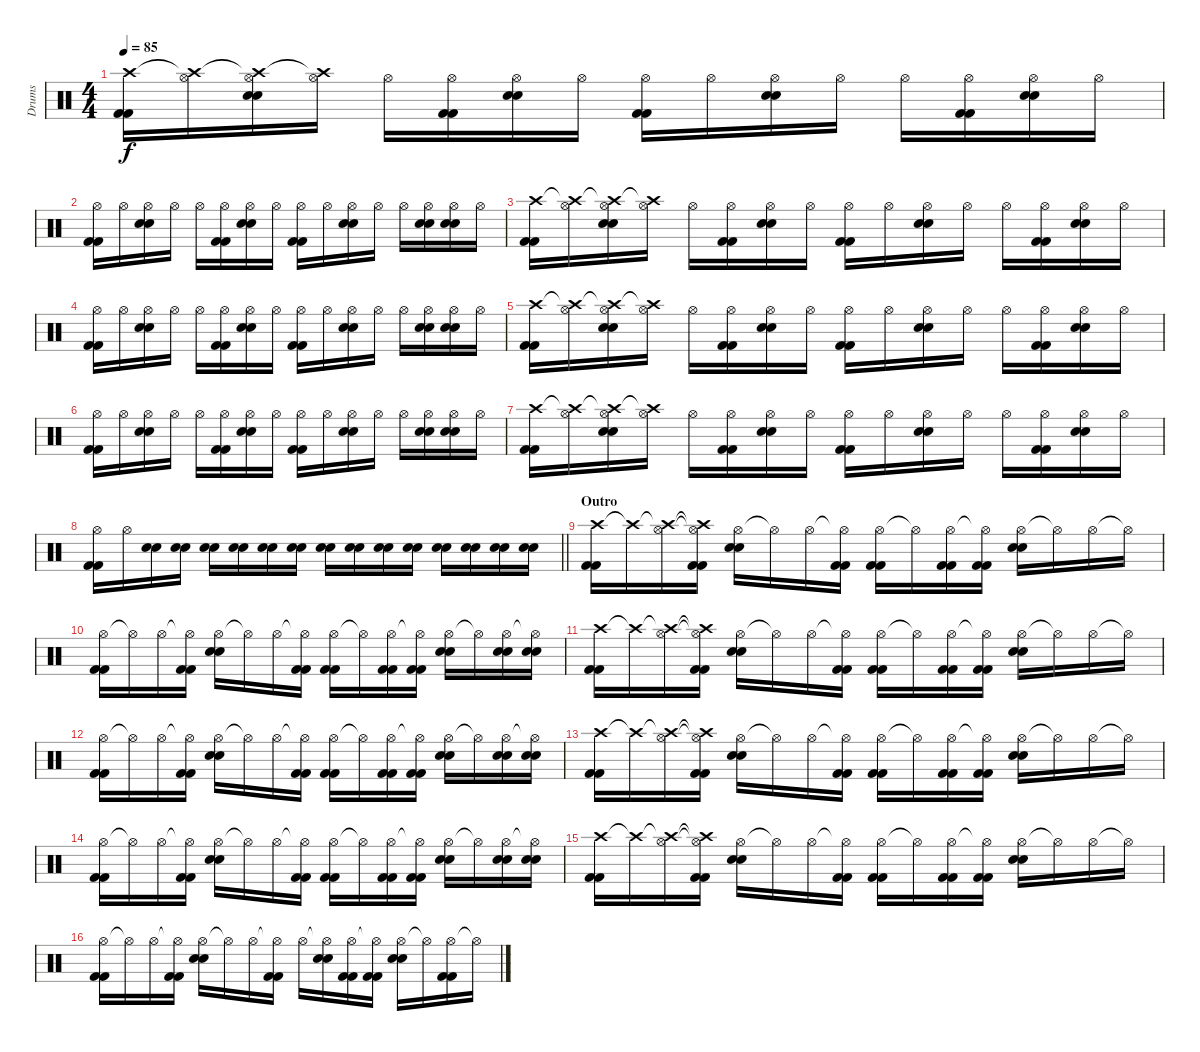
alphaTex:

\track ("Drums" "Drums") {instrument percussion}
\staff {score}
\articulation defaults
\ts (4 4)
\tempo 85
\clef neutral
\ks c
("Crash high (hit)" "Kick (hit) 2" "Kick (hit) 2").16{dy f} ("Crash high (hit)"{t} "Hi-Hat (open)").16 ("Crash high (hit)"{t} "Hi-Hat (open)" "Snare (hit) 2" "Snare (hit) 2").16 ("Crash high (hit)"{t} "Hi-Hat (open)").16 "Hi-Hat (open)".16 ("Hi-Hat (open)" "Kick (hit) 2" "Kick (hit) 2").16 ("Hi-Hat (open)" "Snare (hit) 2" "Snare (hit) 2").16 "Hi-Hat (open)".16 ("Hi-Hat (open)" "Kick (hit) 2" "Kick (hit) 2").16 "Hi-Hat (open)".16 ("Hi-Hat (open)" "Snare (hit) 2" "Snare (hit) 2").16 "Hi-Hat (open)".16 "Hi-Hat (open)".16 ("Hi-Hat (open)" "Kick (hit) 2" "Kick (hit) 2").16 ("Hi-Hat (open)" "Snare (hit) 2" "Snare (hit) 2").16 "Hi-Hat (open)".16 |
("Hi-Hat (open)" "Kick (hit) 2" "Kick (hit) 2").16 "Hi-Hat (open)".16 ("Hi-Hat (open)" "Snare (hit) 2" "Snare (hit) 2").16 "Hi-Hat (open)".16 "Hi-Hat (open)".16 ("Hi-Hat (open)" "Kick (hit) 2" "Kick (hit) 2").16 ("Hi-Hat (open)" "Snare (hit) 2" "Snare (hit) 2").16 "Hi-Hat (open)".16 ("Hi-Hat (open)" "Kick (hit) 2" "Kick (hit) 2").16 "Hi-Hat (open)".16 ("Hi-Hat (open)" "Snare (hit) 2" "Snare (hit) 2").16 "Hi-Hat (open)".16 "Hi-Hat (open)".16 ("Hi-Hat (open)" "Snare (hit) 2" "Snare (hit) 2").16 ("Hi-Hat (open)" "Snare (hit) 2" "Snare (hit) 2").16 "Hi-Hat (open)".16 |
("Crash high (hit)" "Kick (hit) 2" "Kick (hit) 2").16 ("Crash high (hit)"{t} "Hi-Hat (open)").16 ("Crash high (hit)"{t} "Hi-Hat (open)" "Snare (hit) 2" "Snare (hit) 2").16 ("Crash high (hit)"{t} "Hi-Hat (open)").16 "Hi-Hat (open)".16 ("Hi-Hat (open)" "Kick (hit) 2" "Kick (hit) 2").16 ("Hi-Hat (open)" "Snare (hit) 2" "Snare (hit) 2").16 "Hi-Hat (open)".16 ("Hi-Hat (open)" "Kick (hit) 2" "Kick (hit) 2").16 "Hi-Hat (open)".16 ("Hi-Hat (open)" "Snare (hit) 2" "Snare (hit) 2").16 "Hi-Hat (open)".16 "Hi-Hat (open)".16 ("Hi-Hat (open)" "Kick (hit) 2" "Kick (hit) 2").16 ("Hi-Hat (open)" "Snare (hit) 2" "Snare (hit) 2").16 "Hi-Hat (open)".16 |
("Hi-Hat (open)" "Kick (hit) 2" "Kick (hit) 2").16 "Hi-Hat (open)".16 ("Hi-Hat (open)" "Snare (hit) 2" "Snare (hit) 2").16 "Hi-Hat (open)".16 "Hi-Hat (open)".16 ("Hi-Hat (open)" "Kick (hit) 2" "Kick (hit) 2").16 ("Hi-Hat (open)" "Snare (hit) 2" "Snare (hit) 2").16 "Hi-Hat (open)".16 ("Hi-Hat (open)" "Kick (hit) 2" "Kick (hit) 2").16 "Hi-Hat (open)".16 ("Hi-Hat (open)" "Snare (hit) 2" "Snare (hit) 2").16 "Hi-Hat (open)".16 "Hi-Hat (open)".16 ("Hi-Hat (open)" "Snare (hit) 2" "Snare (hit) 2").16 ("Hi-Hat (open)" "Snare (hit) 2" "Snare (hit) 2").16 "Hi-Hat (open)".16 |
("Crash high (hit)" "Kick (hit) 2" "Kick (hit) 2").16 ("Crash high (hit)"{t} "Hi-Hat (open)").16 ("Crash high (hit)"{t} "Hi-Hat (open)" "Snare (hit) 2" "Snare (hit) 2").16 ("Crash high (hit)"{t} "Hi-Hat (open)").16 "Hi-Hat (open)".16 ("Hi-Hat (open)" "Kick (hit) 2" "Kick (hit) 2").16 ("Hi-Hat (open)" "Snare (hit) 2" "Snare (hit) 2").16 "Hi-Hat (open)".16 ("Hi-Hat (open)" "Kick (hit) 2" "Kick (hit) 2").16 "Hi-Hat (open)".16 ("Hi-Hat (open)" "Snare (hit) 2" "Snare (hit) 2").16 "Hi-Hat (open)".16 "Hi-Hat (open)".16 ("Hi-Hat (open)" "Kick (hit) 2" "Kick (hit) 2").16 ("Hi-Hat (open)" "Snare (hit) 2" "Snare (hit) 2").16 "Hi-Hat (open)".16 |
("Hi-Hat (open)" "Kick (hit) 2" "Kick (hit) 2").16 "Hi-Hat (open)".16 ("Hi-Hat (open)" "Snare (hit) 2" "Snare (hit) 2").16 "Hi-Hat (open)".16 "Hi-Hat (open)".16 ("Hi-Hat (open)" "Kick (hit) 2" "Kick (hit) 2").16 ("Hi-Hat (open)" "Snare (hit) 2" "Snare (hit) 2").16 "Hi-Hat (open)".16 ("Hi-Hat (open)" "Kick (hit) 2" "Kick (hit) 2").16 "Hi-Hat (open)".16 ("Hi-Hat (open)" "Snare (hit) 2" "Snare (hit) 2").16 "Hi-Hat (open)".16 "Hi-Hat (open)".16 ("Hi-Hat (open)" "Snare (hit) 2" "Snare (hit) 2").16 ("Hi-Hat (open)" "Snare (hit) 2" "Snare (hit) 2").16 "Hi-Hat (open)".16 |
("Crash high (hit)" "Kick (hit) 2" "Kick (hit) 2").16 ("Crash high (hit)"{t} "Hi-Hat (open)").16 ("Crash high (hit)"{t} "Hi-Hat (open)" "Snare (hit) 2" "Snare (hit) 2").16 ("Crash high (hit)"{t} "Hi-Hat (open)").16 "Hi-Hat (open)".16 ("Hi-Hat (open)" "Kick (hit) 2" "Kick (hit) 2").16 ("Hi-Hat (open)" "Snare (hit) 2" "Snare (hit) 2").16 "Hi-Hat (open)".16 ("Hi-Hat (open)" "Kick (hit) 2" "Kick (hit) 2").16 "Hi-Hat (open)".16 ("Hi-Hat (open)" "Snare (hit) 2" "Snare (hit) 2").16 "Hi-Hat (open)".16 "Hi-Hat (open)".16 ("Hi-Hat (open)" "Kick (hit) 2" "Kick (hit) 2").16 ("Hi-Hat (open)" "Snare (hit) 2" "Snare (hit) 2").16 "Hi-Hat (open)".16 |
\barLineRight lightlight
("Hi-Hat (open)" "Kick (hit) 2" "Kick (hit) 2").16 "Hi-Hat (open)".16 ("Snare (hit) 2" "Snare (hit) 2").16 ("Snare (hit) 2" "Snare (hit) 2").16 ("Snare (hit) 2" "Snare (hit) 2").16 ("Snare (hit) 2" "Snare (hit) 2").16 ("Snare (hit) 2" "Snare (hit) 2").16 ("Snare (hit) 2" "Snare (hit) 2").16 ("Snare (hit) 2" "Snare (hit) 2").16 ("Snare (hit) 2" "Snare (hit) 2").16 ("Snare (hit) 2" "Snare (hit) 2").16 ("Snare (hit) 2" "Snare (hit) 2").16 ("Snare (hit) 2" "Snare (hit) 2").16 ("Snare (hit) 2" "Snare (hit) 2").16 ("Snare (hit) 2" "Snare (hit) 2").16 ("Snare (hit) 2" "Snare (hit) 2").16 |
\section ("" "Outro")
("Crash high (hit)" "Kick (hit) 2" "Kick (hit) 2").16 "Crash high (hit)"{t}.16 ("Crash high (hit)"{t} "Hi-Hat (open)").16 ("Crash high (hit)"{t} "Hi-Hat (open)"{t} "Kick (hit) 2" "Kick (hit) 2").16 ("Hi-Hat (open)" "Snare (hit) 2" "Snare (hit) 2").16 "Hi-Hat (open)"{t}.16 "Hi-Hat (open)".16 ("Hi-Hat (open)"{t} "Kick (hit) 2" "Kick (hit) 2").16 ("Hi-Hat (open)" "Kick (hit) 2" "Kick (hit) 2").16 "Hi-Hat (open)"{t}.16 ("Hi-Hat (open)" "Kick (hit) 2" "Kick (hit) 2").16 ("Hi-Hat (open)"{t} "Kick (hit) 2" "Kick (hit) 2").16 ("Hi-Hat (open)" "Snare (hit) 2" "Snare (hit) 2").16 "Hi-Hat (open)"{t}.16 "Hi-Hat (open)".16 "Hi-Hat (open)"{t}.16 |
("Hi-Hat (open)" "Kick (hit) 2" "Kick (hit) 2").16 "Hi-Hat (open)"{t}.16 "Hi-Hat (open)".16 ("Hi-Hat (open)"{t} "Kick (hit) 2" "Kick (hit) 2").16 ("Hi-Hat (open)" "Snare (hit) 2" "Snare (hit) 2").16 "Hi-Hat (open)"{t}.16 "Hi-Hat (open)".16 ("Hi-Hat (open)"{t} "Kick (hit) 2" "Kick (hit) 2").16 ("Hi-Hat (open)" "Kick (hit) 2" "Kick (hit) 2").16 "Hi-Hat (open)"{t}.16 ("Hi-Hat (open)" "Kick (hit) 2" "Kick (hit) 2").16 ("Hi-Hat (open)"{t} "Kick (hit) 2" "Kick (hit) 2").16 ("Hi-Hat (open)" "Snare (hit) 2" "Snare (hit) 2").16 "Hi-Hat (open)"{t}.16 ("Hi-Hat (open)" "Snare (hit) 2" "Snare (hit) 2").16 ("Hi-Hat (open)"{t} "Snare (hit) 2" "Snare (hit) 2").16 |
("Crash high (hit)" "Kick (hit) 2" "Kick (hit) 2").16 "Crash high (hit)"{t}.16 ("Crash high (hit)"{t} "Hi-Hat (open)").16 ("Crash high (hit)"{t} "Hi-Hat (open)"{t} "Kick (hit) 2" "Kick (hit) 2").16 ("Hi-Hat (open)" "Snare (hit) 2" "Snare (hit) 2").16 "Hi-Hat (open)"{t}.16 "Hi-Hat (open)".16 ("Hi-Hat (open)"{t} "Kick (hit) 2" "Kick (hit) 2").16 ("Hi-Hat (open)" "Kick (hit) 2" "Kick (hit) 2").16 "Hi-Hat (open)"{t}.16 ("Hi-Hat (open)" "Kick (hit) 2" "Kick (hit) 2").16 ("Hi-Hat (open)"{t} "Kick (hit) 2" "Kick (hit) 2").16 ("Hi-Hat (open)" "Snare (hit) 2" "Snare (hit) 2").16 "Hi-Hat (open)"{t}.16 "Hi-Hat (open)".16 "Hi-Hat (open)"{t}.16 |
("Hi-Hat (open)" "Kick (hit) 2" "Kick (hit) 2").16 "Hi-Hat (open)"{t}.16 "Hi-Hat (open)".16 ("Hi-Hat (open)"{t} "Kick (hit) 2" "Kick (hit) 2").16 ("Hi-Hat (open)" "Snare (hit) 2" "Snare (hit) 2").16 "Hi-Hat (open)"{t}.16 "Hi-Hat (open)".16 ("Hi-Hat (open)"{t} "Kick (hit) 2" "Kick (hit) 2").16 ("Hi-Hat (open)" "Kick (hit) 2" "Kick (hit) 2").16 "Hi-Hat (open)"{t}.16 ("Hi-Hat (open)" "Kick (hit) 2" "Kick (hit) 2").16 ("Hi-Hat (open)"{t} "Kick (hit) 2" "Kick (hit) 2").16 ("Hi-Hat (open)" "Snare (hit) 2" "Snare (hit) 2").16 "Hi-Hat (open)"{t}.16 ("Hi-Hat (open)" "Snare (hit) 2" "Snare (hit) 2").16 ("Hi-Hat (open)"{t} "Snare (hit) 2" "Snare (hit) 2").16 |
("Crash high (hit)" "Kick (hit) 2" "Kick (hit) 2").16 "Crash high (hit)"{t}.16 ("Crash high (hit)"{t} "Hi-Hat (open)").16 ("Crash high (hit)"{t} "Hi-Hat (open)"{t} "Kick (hit) 2" "Kick (hit) 2").16 ("Hi-Hat (open)" "Snare (hit) 2" "Snare (hit) 2").16 "Hi-Hat (open)"{t}.16 "Hi-Hat (open)".16 ("Hi-Hat (open)"{t} "Kick (hit) 2" "Kick (hit) 2").16 ("Hi-Hat (open)" "Kick (hit) 2" "Kick (hit) 2").16 "Hi-Hat (open)"{t}.16 ("Hi-Hat (open)" "Kick (hit) 2" "Kick (hit) 2").16 ("Hi-Hat (open)"{t} "Kick (hit) 2" "Kick (hit) 2").16 ("Hi-Hat (open)" "Snare (hit) 2" "Snare (hit) 2").16 "Hi-Hat (open)"{t}.16 "Hi-Hat (open)".16 "Hi-Hat (open)"{t}.16 |
("Hi-Hat (open)" "Kick (hit) 2" "Kick (hit) 2").16 "Hi-Hat (open)"{t}.16 "Hi-Hat (open)".16 ("Hi-Hat (open)"{t} "Kick (hit) 2" "Kick (hit) 2").16 ("Hi-Hat (open)" "Snare (hit) 2" "Snare (hit) 2").16 "Hi-Hat (open)"{t}.16 "Hi-Hat (open)".16 ("Hi-Hat (open)"{t} "Kick (hit) 2" "Kick (hit) 2").16 ("Hi-Hat (open)" "Kick (hit) 2" "Kick (hit) 2").16 "Hi-Hat (open)"{t}.16 ("Hi-Hat (open)" "Kick (hit) 2" "Kick (hit) 2").16 ("Hi-Hat (open)"{t} "Kick (hit) 2" "Kick (hit) 2").16 ("Hi-Hat (open)" "Snare (hit) 2" "Snare (hit) 2").16 "Hi-Hat (open)"{t}.16 ("Hi-Hat (open)" "Snare (hit) 2" "Snare (hit) 2").16 ("Hi-Hat (open)"{t} "Snare (hit) 2" "Snare (hit) 2").16 |
("Crash high (hit)" "Kick (hit) 2" "Kick (hit) 2").16 "Crash high (hit)"{t}.16 ("Crash high (hit)"{t} "Hi-Hat (open)").16 ("Crash high (hit)"{t} "Hi-Hat (open)"{t} "Kick (hit) 2" "Kick (hit) 2").16 ("Hi-Hat (open)" "Snare (hit) 2" "Snare (hit) 2").16 "Hi-Hat (open)"{t}.16 "Hi-Hat (open)".16 ("Hi-Hat (open)"{t} "Kick (hit) 2" "Kick (hit) 2").16 ("Hi-Hat (open)" "Kick (hit) 2" "Kick (hit) 2").16 "Hi-Hat (open)"{t}.16 ("Hi-Hat (open)" "Kick (hit) 2" "Kick (hit) 2").16 ("Hi-Hat (open)"{t} "Kick (hit) 2" "Kick (hit) 2").16 ("Hi-Hat (open)" "Snare (hit) 2" "Snare (hit) 2").16 "Hi-Hat (open)"{t}.16 "Hi-Hat (open)".16 "Hi-Hat (open)"{t}.16 |
("Hi-Hat (open)" "Kick (hit) 2" "Kick (hit) 2").16 "Hi-Hat (open)"{t}.16 "Hi-Hat (open)".16 ("Hi-Hat (open)"{t} "Kick (hit) 2" "Kick (hit) 2").16 ("Hi-Hat (open)" "Snare (hit) 2" "Snare (hit) 2").16 "Hi-Hat (open)"{t}.16 "Hi-Hat (open)".16 ("Hi-Hat (open)"{t} "Kick (hit) 2" "Kick (hit) 2").16 "Hi-Hat (open)".16 ("Hi-Hat (open)"{t} "Snare (hit) 2" "Snare (hit) 2").16 ("Hi-Hat (open)" "Kick (hit) 2" "Kick (hit) 2").16 ("Hi-Hat (open)"{t} "Kick (hit) 2" "Kick (hit) 2").16 ("Hi-Hat (open)" "Snare (hit) 2" "Snare (hit) 2").16 "Hi-Hat (open)"{t}.16 ("Hi-Hat (open)" "Kick (hit) 2" "Kick (hit) 2").16 "Hi-Hat (open)"{t}.16
